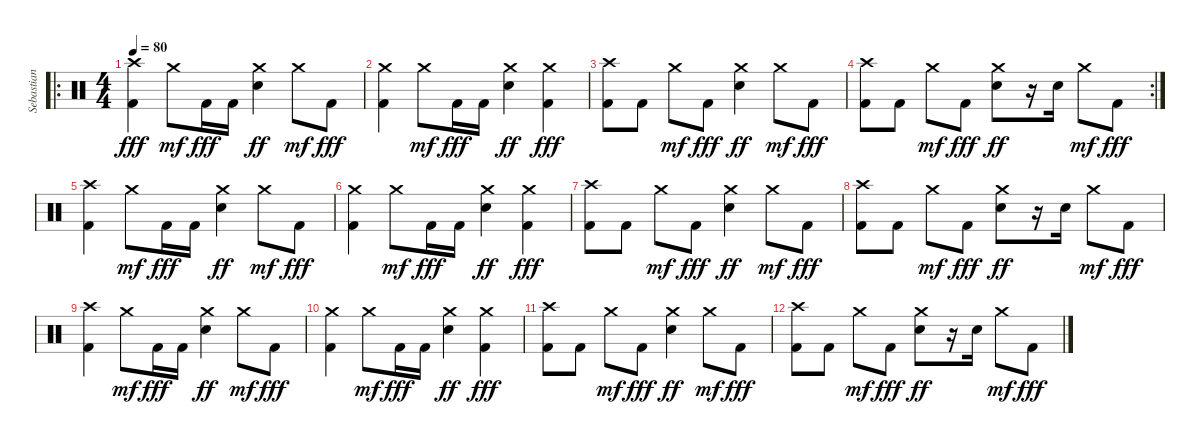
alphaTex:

\track ("Sebastian" "Sebastian") {instrument percussion}
\staff {score}
\articulation defaults
\ro
\ts (4 4)
\tempo 80
\clef neutral
\ks c
("Crash high (hit)" "Kick (hit) 2").4{dy fff} "Crash medium (hit)".8{dy mf} "Kick (hit) 2".16{dy fff} "Kick (hit) 2".16 ("Crash medium (hit)" "Electric Snare (hit)").4{dy ff} "Crash medium (hit)".8{dy mf} "Kick (hit) 2".8{dy fff} |
("Crash medium (hit)" "Kick (hit) 2").4 "Crash medium (hit)".8{dy mf} "Kick (hit) 2".16{dy fff} "Kick (hit) 2".16 ("Crash medium (hit)" "Electric Snare (hit)").4{dy ff} ("Crash medium (hit)" "Kick (hit) 2").4{dy fff} |
("Crash high (hit)" "Kick (hit) 2").8 "Kick (hit) 2".8 "Crash medium (hit)".8{dy mf} "Kick (hit) 2".8{dy fff} ("Crash medium (hit)" "Electric Snare (hit)").4{dy ff} "Crash medium (hit)".8{dy mf} "Kick (hit) 2".8{dy fff} |
\rc 2
("Crash high (hit)" "Kick (hit) 2").8 "Kick (hit) 2".8 "Crash medium (hit)".8{dy mf} "Kick (hit) 2".8{dy fff} ("Crash medium (hit)" "Electric Snare (hit)").8{dy ff} r.16 "Electric Snare (hit)".16 "Crash medium (hit)".8{dy mf} "Kick (hit) 2".8{dy fff} |
("Crash high (hit)" "Kick (hit) 2").4 "Crash medium (hit)".8{dy mf} "Kick (hit) 2".16{dy fff} "Kick (hit) 2".16 ("Crash medium (hit)" "Electric Snare (hit)").4{dy ff} "Crash medium (hit)".8{dy mf} "Kick (hit) 2".8{dy fff} |
("Crash medium (hit)" "Kick (hit) 2").4 "Crash medium (hit)".8{dy mf} "Kick (hit) 2".16{dy fff} "Kick (hit) 2".16 ("Crash medium (hit)" "Electric Snare (hit)").4{dy ff} ("Crash medium (hit)" "Kick (hit) 2").4{dy fff} |
("Crash high (hit)" "Kick (hit) 2").8 "Kick (hit) 2".8 "Crash medium (hit)".8{dy mf} "Kick (hit) 2".8{dy fff} ("Crash medium (hit)" "Electric Snare (hit)").4{dy ff} "Crash medium (hit)".8{dy mf} "Kick (hit) 2".8{dy fff} |
("Crash high (hit)" "Kick (hit) 2").8 "Kick (hit) 2".8 "Crash medium (hit)".8{dy mf} "Kick (hit) 2".8{dy fff} ("Crash medium (hit)" "Electric Snare (hit)").8{dy ff} r.16 "Electric Snare (hit)".16 "Crash medium (hit)".8{dy mf} "Kick (hit) 2".8{dy fff} |
("Crash high (hit)" "Kick (hit) 2").4 "Crash medium (hit)".8{dy mf} "Kick (hit) 2".16{dy fff} "Kick (hit) 2".16 ("Crash medium (hit)" "Electric Snare (hit)").4{dy ff} "Crash medium (hit)".8{dy mf} "Kick (hit) 2".8{dy fff} |
("Crash medium (hit)" "Kick (hit) 2").4 "Crash medium (hit)".8{dy mf} "Kick (hit) 2".16{dy fff} "Kick (hit) 2".16 ("Crash medium (hit)" "Electric Snare (hit)").4{dy ff} ("Crash medium (hit)" "Kick (hit) 2").4{dy fff} |
("Crash high (hit)" "Kick (hit) 2").8 "Kick (hit) 2".8 "Crash medium (hit)".8{dy mf} "Kick (hit) 2".8{dy fff} ("Crash medium (hit)" "Electric Snare (hit)").4{dy ff} "Crash medium (hit)".8{dy mf} "Kick (hit) 2".8{dy fff} |
("Crash high (hit)" "Kick (hit) 2").8 "Kick (hit) 2".8 "Crash medium (hit)".8{dy mf} "Kick (hit) 2".8{dy fff} ("Crash medium (hit)" "Electric Snare (hit)").8{dy ff} r.16 "Electric Snare (hit)".16 "Crash medium (hit)".8{dy mf} "Kick (hit) 2".8{dy fff}
